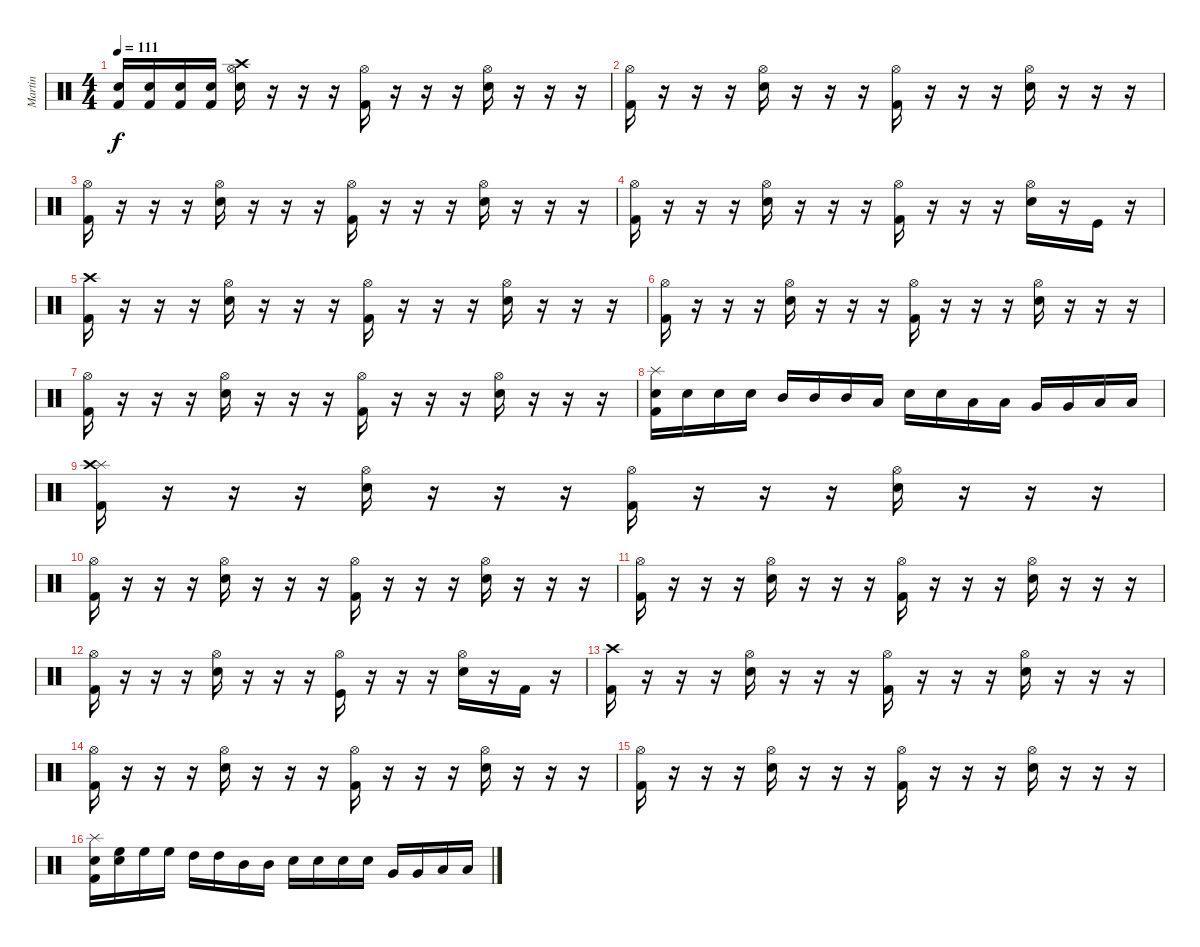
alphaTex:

\track ("Martin" "Martin") {instrument percussion}
\staff {score}
\articulation defaults
\ts (4 4)
\tempo 111
\clef neutral
\ks c
("Kick (hit) 2" "Electric Snare (hit)").16{dy f} ("Kick (hit) 2" "Electric Snare (hit)").16 ("Kick (hit) 2" "Electric Snare (hit)").16 ("Kick (hit) 2" "Electric Snare (hit)").16 ("Electric Snare (hit)" "Hi-Hat (open)" "Crash high (hit)").16 r.16 r.16 r.16 ("Kick (hit) 2" "Hi-Hat (open)").16 r.16 r.16 r.16 ("Electric Snare (hit)" "Hi-Hat (open)").16 r.16 r.16 r.16 |
("Kick (hit) 2" "Hi-Hat (open)").16 r.16 r.16 r.16 ("Electric Snare (hit)" "Hi-Hat (open)").16 r.16 r.16 r.16 ("Kick (hit) 2" "Hi-Hat (open)").16 r.16 r.16 r.16 ("Electric Snare (hit)" "Hi-Hat (open)").16 r.16 r.16 r.16 |
("Kick (hit) 2" "Hi-Hat (open)").16 r.16 r.16 r.16 ("Electric Snare (hit)" "Hi-Hat (open)").16 r.16 r.16 r.16 ("Kick (hit) 2" "Hi-Hat (open)").16 r.16 r.16 r.16 ("Electric Snare (hit)" "Hi-Hat (open)").16 r.16 r.16 r.16 |
("Kick (hit) 2" "Hi-Hat (open)").16 r.16 r.16 r.16 ("Electric Snare (hit)" "Hi-Hat (open)").16 r.16 r.16 r.16 ("Kick (hit) 2" "Hi-Hat (open)").16 r.16 r.16 r.16 ("Electric Snare (hit)" "Hi-Hat (open)").16 r.16 "Kick (hit)".16 r.16 |
("Kick (hit) 2" "Crash high (hit)").16 r.16 r.16 r.16 ("Electric Snare (hit)" "Hi-Hat (open)").16 r.16 r.16 r.16 ("Kick (hit) 2" "Hi-Hat (open)").16 r.16 r.16 r.16 ("Electric Snare (hit)" "Hi-Hat (open)").16 r.16 r.16 r.16 |
("Kick (hit) 2" "Hi-Hat (open)").16 r.16 r.16 r.16 ("Electric Snare (hit)" "Hi-Hat (open)").16 r.16 r.16 r.16 ("Kick (hit) 2" "Hi-Hat (open)").16 r.16 r.16 r.16 ("Electric Snare (hit)" "Hi-Hat (open)").16 r.16 r.16 r.16 |
("Kick (hit) 2" "Hi-Hat (open)").16 r.16 r.16 r.16 ("Electric Snare (hit)" "Hi-Hat (open)").16 r.16 r.16 r.16 ("Kick (hit) 2" "Hi-Hat (open)").16 r.16 r.16 r.16 ("Electric Snare (hit)" "Hi-Hat (open)").16 r.16 r.16 r.16 |
("Kick (hit) 2" "Electric Snare (hit)" "Splash (hit)").16 "Electric Snare (hit)".16 "Electric Snare (hit)".16 "Electric Snare (hit)".16 "Mid Tom (hit)".16 "Mid Tom (hit)".16 "Mid Tom (hit)".16 "Low Tom (hit)".16 "Electric Snare (hit)".16 "Electric Snare (hit)".16 "Low Tom (hit)".16 "Low Tom (hit)".16 "Very Low Tom (hit)".16 "Very Low Tom (hit)".16 "Low Floor Tom (hit)".16 "Low Floor Tom (hit)".16 |
("Kick (hit) 2" "Splash (hit)" "Crash high (hit)").16 r.16 r.16 r.16 ("Electric Snare (hit)" "Hi-Hat (open)").16 r.16 r.16 r.16 ("Kick (hit) 2" "Hi-Hat (open)").16 r.16 r.16 r.16 ("Electric Snare (hit)" "Hi-Hat (open)").16 r.16 r.16 r.16 |
("Kick (hit) 2" "Hi-Hat (open)").16 r.16 r.16 r.16 ("Electric Snare (hit)" "Hi-Hat (open)").16 r.16 r.16 r.16 ("Kick (hit) 2" "Hi-Hat (open)").16 r.16 r.16 r.16 ("Electric Snare (hit)" "Hi-Hat (open)").16 r.16 r.16 r.16 |
("Kick (hit) 2" "Hi-Hat (open)").16 r.16 r.16 r.16 ("Electric Snare (hit)" "Hi-Hat (open)").16 r.16 r.16 r.16 ("Kick (hit) 2" "Hi-Hat (open)").16 r.16 r.16 r.16 ("Electric Snare (hit)" "Hi-Hat (open)").16 r.16 r.16 r.16 |
("Kick (hit) 2" "Hi-Hat (open)").16 r.16 r.16 r.16 ("Electric Snare (hit)" "Hi-Hat (open)").16 r.16 r.16 r.16 ("Kick (hit)" "Hi-Hat (open)").16 r.16 r.16 r.16 ("Electric Snare (hit)" "Hi-Hat (open)").16 r.16 "Kick (hit) 2".16 r.16 |
("Kick (hit) 2" "Crash high (hit)").16 r.16 r.16 r.16 ("Electric Snare (hit)" "Hi-Hat (open)").16 r.16 r.16 r.16 ("Kick (hit) 2" "Hi-Hat (open)").16 r.16 r.16 r.16 ("Electric Snare (hit)" "Hi-Hat (open)").16 r.16 r.16 r.16 |
("Kick (hit) 2" "Hi-Hat (open)").16 r.16 r.16 r.16 ("Electric Snare (hit)" "Hi-Hat (open)").16 r.16 r.16 r.16 ("Kick (hit) 2" "Hi-Hat (open)").16 r.16 r.16 r.16 ("Electric Snare (hit)" "Hi-Hat (open)").16 r.16 r.16 r.16 |
("Kick (hit) 2" "Hi-Hat (open)").16 r.16 r.16 r.16 ("Electric Snare (hit)" "Hi-Hat (open)").16 r.16 r.16 r.16 ("Kick (hit) 2" "Hi-Hat (open)").16 r.16 r.16 r.16 ("Electric Snare (hit)" "Hi-Hat (open)").16 r.16 r.16 r.16 |
("Kick (hit) 2" "Electric Snare (hit)" "Splash (hit)").16 ("Electric Snare (hit)" "High Floor Tom (hit)").16 "High Floor Tom (hit)".16 "High Floor Tom (hit)".16 "High Tom (hit)".16 "High Tom (hit)".16 "Mid Tom (hit)".16 "Mid Tom (hit)".16 "Electric Snare (hit)".16 "Electric Snare (hit)".16 "Electric Snare (hit)".16 "Electric Snare (hit)".16 "Very Low Tom (hit)".16 "Very Low Tom (hit)".16 "Low Floor Tom (hit)".16 "Low Floor Tom (hit)".16
